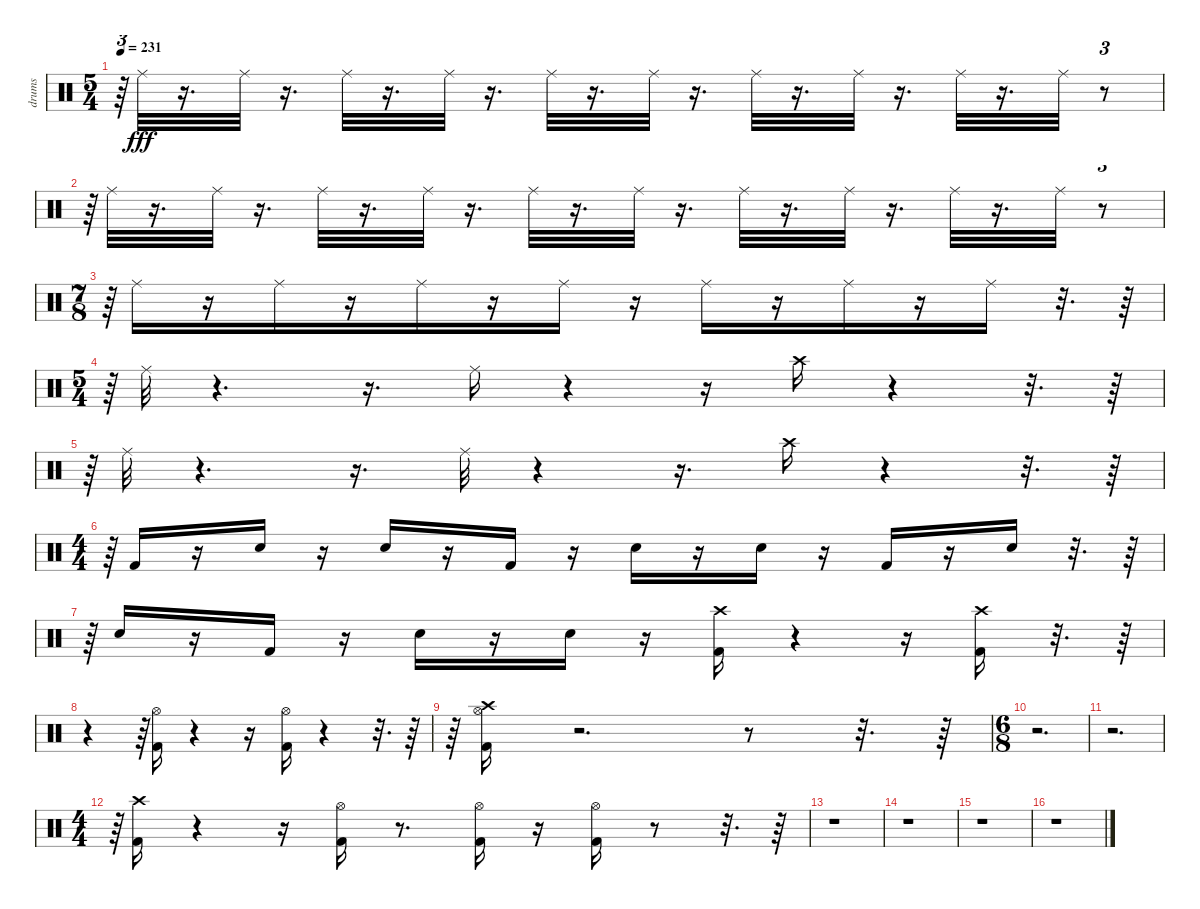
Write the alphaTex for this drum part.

\track ("drums               " "drums     ") {instrument percussion}
\staff {score}
\articulation defaults
\ts (5 4)
\tempo 231
\clef neutral
\ks c
r.64{tu (3 2) dy fff} "Ride (middle)".32 r.16{d} "Ride (middle)".32 r.16{d} "Ride (middle)".32 r.16{d} "Ride (middle)".32 r.16{d} "Ride (middle)".32 r.16{d} "Ride (middle)".32 r.16{d} "Ride (middle)".32 r.16{d} "Ride (middle)".32 r.16{d} "Ride (middle)".32 r.16{d} "Ride (middle)".32 r.8{tu (3 2)} |
r.64{tu (3 2)} "Ride (middle)".32 r.16{d} "Ride (middle)".32 r.16{d} "Ride (middle)".32 r.16{d} "Ride (middle)".32 r.16{d} "Ride (middle)".32 r.16{d} "Ride (middle)".32 r.16{d} "Ride (middle)".32 r.16{d} "Ride (middle)".32 r.16{d} "Ride (middle)".32 r.16{d} "Ride (middle)".32 r.8{tu (3 2)} |
\ts (7 8)
r.64{tu (3 2)} "Ride (middle)".16 r.16 "Ride (middle)".16 r.16 "Ride (middle)".16 r.16 "Ride (middle)".16 r.16 "Ride (middle)".16 r.16 "Ride (middle)".16 r.16 "Ride (middle)".16 r.32{d} r.64 |
\ts (5 4)
r.64{tu (3 2)} "Ride (middle)".32 r.4{d} r.16{d} "Ride (middle)".16 r.4 r.16 "Crash high (hit)".16 r.4 r.32{d} r.64 |
r.64{tu (3 2)} "Ride (middle)".32 r.4{d} r.16{d} "Ride (middle)".32 r.4 r.16{d} "Crash high (hit)".16 r.4 r.32{d} r.64 |
\ts (4 4)
r.64{tu (3 2)} "Kick (hit) 2".16 r.16 "Snare (hit) 2".16 r.16 "Snare (hit) 2".16 r.16 "Kick (hit) 2".16 r.16 "Snare (hit) 2".16 r.16 "Snare (hit) 2".16 r.16 "Kick (hit) 2".16 r.16 "Snare (hit) 2".16 r.32{d} r.64 |
r.64{tu (3 2)} "Snare (hit) 2".16 r.16 "Kick (hit) 2".16 r.16 "Snare (hit) 2".16 r.16 "Snare (hit) 2".16 r.16 ("Kick (hit) 2" "Crash high (hit)").16 r.4 r.16 ("Kick (hit) 2" "Crash high (hit)").16 r.32{d} r.64 |
r.4 r.64{tu (3 2)} ("Kick (hit) 2" "Hi-Hat (open)").16 r.4 r.16 ("Kick (hit) 2" "Hi-Hat (open)").16 r.4 r.32{d} r.64 |
r.64{tu (3 2)} ("Kick (hit) 2" "Hi-Hat (open)" "Crash high (hit)").16 r.2{d} r.8 r.32{d} r.64 |
\ts (6 8)
r.2{d} |
r.2{d} |
\ts (4 4)
r.64{tu (3 2)} ("Kick (hit) 2" "Crash high (hit)").16 r.4 r.16 ("Kick (hit) 2" "Hi-Hat (open)").16 r.8{d} ("Kick (hit) 2" "Hi-Hat (open)").16 r.16 ("Kick (hit) 2" "Hi-Hat (open)").16 r.8 r.32{d} r.64 |
r.1 |
r.1 |
r.1 |
r.1
